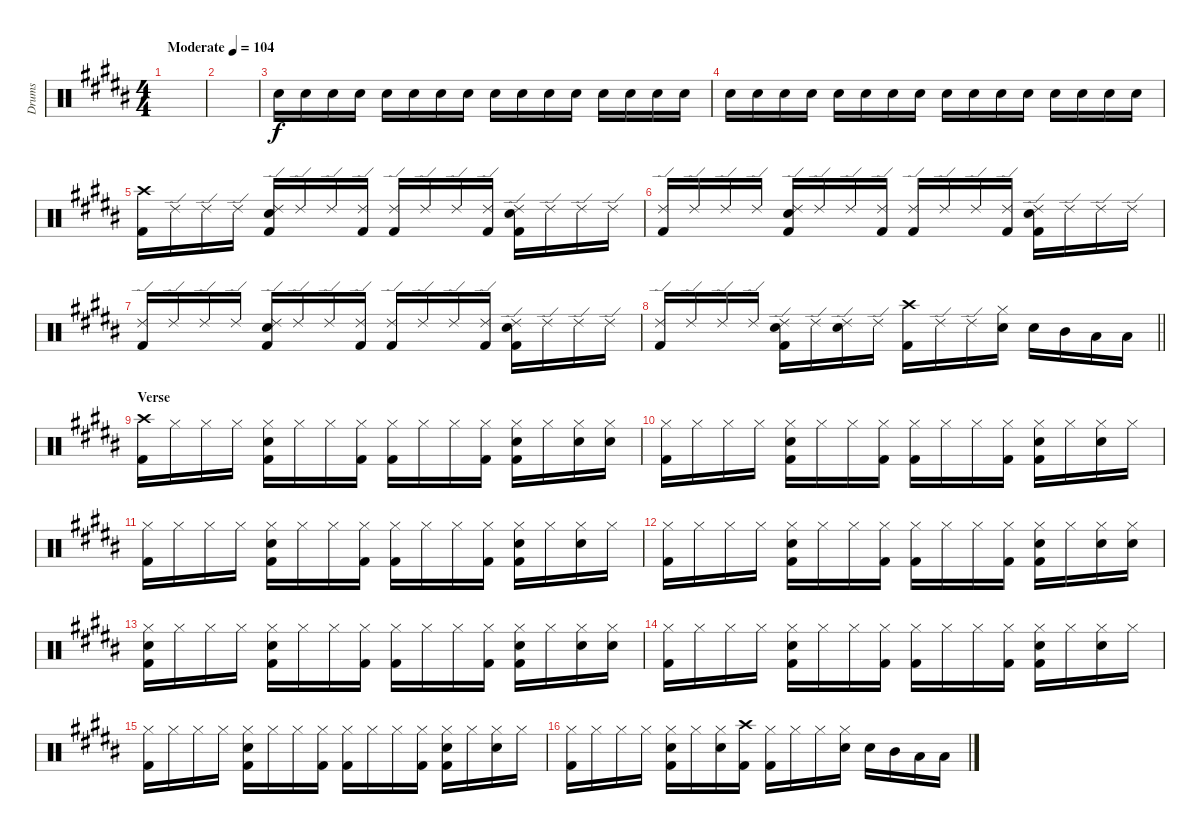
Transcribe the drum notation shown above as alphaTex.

\track ("Drums" "Drums") {instrument percussion}
\staff {score}
\articulation defaults
\ts (4 4)
\tempo (104 "Moderate")
\clef neutral
\ks b
|
|
"Electric Snare (hit)".16{volume 16} "Electric Snare (hit)".16 "Electric Snare (hit)".16 "Electric Snare (hit)".16 "Electric Snare (hit)".16 "Electric Snare (hit)".16 "Electric Snare (hit)".16 "Electric Snare (hit)".16 "Electric Snare (hit)".16 "Electric Snare (hit)".16 "Electric Snare (hit)".16 "Electric Snare (hit)".16 "Electric Snare (hit)".16 "Electric Snare (hit)".16 "Electric Snare (hit)".16 "Electric Snare (hit)".16 |
"Electric Snare (hit)".16 "Electric Snare (hit)".16 "Electric Snare (hit)".16 "Electric Snare (hit)".16 "Electric Snare (hit)".16 "Electric Snare (hit)".16 "Electric Snare (hit)".16 "Electric Snare (hit)".16 "Electric Snare (hit)".16 "Electric Snare (hit)".16 "Electric Snare (hit)".16 "Electric Snare (hit)".16 "Electric Snare (hit)".16 "Electric Snare (hit)".16 "Electric Snare (hit)".16 "Electric Snare (hit)".16 |
("Kick (hit) 2" "Crash high (hit)").16 "Ride (edge) 2".16 "Ride (edge) 2".16 "Ride (edge) 2".16 ("Electric Snare (hit)" "Kick (hit) 2" "Ride (edge) 2").16 "Ride (edge) 2".16 "Ride (edge) 2".16 ("Kick (hit) 2" "Ride (edge) 2").16 ("Kick (hit) 2" "Ride (edge) 2").16 "Ride (edge) 2".16 "Ride (edge) 2".16 ("Kick (hit) 2" "Ride (edge) 2").16 ("Electric Snare (hit)" "Kick (hit) 2" "Ride (edge) 2").16 "Ride (edge) 2".16 "Ride (edge) 2".16 "Ride (edge) 2".16 |
("Kick (hit) 2" "Ride (edge) 2").16 "Ride (edge) 2".16 "Ride (edge) 2".16 "Ride (edge) 2".16 ("Electric Snare (hit)" "Kick (hit) 2" "Ride (edge) 2").16 "Ride (edge) 2".16 "Ride (edge) 2".16 ("Kick (hit) 2" "Ride (edge) 2").16 ("Kick (hit) 2" "Ride (edge) 2").16 "Ride (edge) 2".16 "Ride (edge) 2".16 ("Kick (hit) 2" "Ride (edge) 2").16 ("Electric Snare (hit)" "Kick (hit) 2" "Ride (edge) 2").16 "Ride (edge) 2".16 "Ride (edge) 2".16 "Ride (edge) 2".16 |
("Kick (hit) 2" "Ride (edge) 2").16 "Ride (edge) 2".16 "Ride (edge) 2".16 "Ride (edge) 2".16 ("Electric Snare (hit)" "Kick (hit) 2" "Ride (edge) 2").16 "Ride (edge) 2".16 "Ride (edge) 2".16 ("Kick (hit) 2" "Ride (edge) 2").16 ("Kick (hit) 2" "Ride (edge) 2").16 "Ride (edge) 2".16 "Ride (edge) 2".16 ("Kick (hit) 2" "Ride (edge) 2").16 ("Electric Snare (hit)" "Kick (hit) 2" "Ride (edge) 2").16 "Ride (edge) 2".16 "Ride (edge) 2".16 "Ride (edge) 2".16 |
\barLineRight lightlight
("Kick (hit) 2" "Ride (edge) 2").16 "Ride (edge) 2".16 "Ride (edge) 2".16 "Ride (edge) 2".16 ("Electric Snare (hit)" "Kick (hit) 2" "Ride (edge) 2").16 "Ride (edge) 2".16 ("Electric Snare (hit)" "Ride (edge) 2").16 "Ride (edge) 2".16 ("Kick (hit) 2" "Crash high (hit)").16 "Ride (edge) 2".16 "Ride (edge) 2".16 ("Electric Snare (hit)" "Hi-Hat (closed)").16 "Electric Snare (hit)".16 "Mid Tom (hit)".16 "Low Tom (hit)".16 "Low Floor Tom (hit)".16 |
\section ("" "Verse")
("Kick (hit) 2" "Crash high (hit)").16 "Hi-Hat (closed)".16 "Hi-Hat (closed)".16 "Hi-Hat (closed)".16 ("Electric Snare (hit)" "Kick (hit) 2" "Hi-Hat (closed)").16 "Hi-Hat (closed)".16 "Hi-Hat (closed)".16 ("Kick (hit) 2" "Hi-Hat (closed)").16 ("Kick (hit) 2" "Hi-Hat (closed)").16 "Hi-Hat (closed)".16 "Hi-Hat (closed)".16 ("Kick (hit) 2" "Hi-Hat (closed)").16 ("Electric Snare (hit)" "Kick (hit) 2" "Hi-Hat (closed)").16 "Hi-Hat (closed)".16 ("Electric Snare (hit)" "Hi-Hat (closed)").16 ("Electric Snare (hit)" "Hi-Hat (closed)").16 |
("Kick (hit) 2" "Hi-Hat (closed)").16 "Hi-Hat (closed)".16 "Hi-Hat (closed)".16 "Hi-Hat (closed)".16 ("Electric Snare (hit)" "Kick (hit) 2" "Hi-Hat (closed)").16 "Hi-Hat (closed)".16 "Hi-Hat (closed)".16 ("Kick (hit) 2" "Hi-Hat (closed)").16 ("Kick (hit) 2" "Hi-Hat (closed)").16 "Hi-Hat (closed)".16 "Hi-Hat (closed)".16 ("Kick (hit) 2" "Hi-Hat (closed)").16 ("Electric Snare (hit)" "Kick (hit) 2" "Hi-Hat (closed)").16 "Hi-Hat (closed)".16 ("Electric Snare (hit)" "Hi-Hat (closed)").16 "Hi-Hat (closed)".16 |
("Kick (hit) 2" "Hi-Hat (closed)").16 "Hi-Hat (closed)".16 "Hi-Hat (closed)".16 "Hi-Hat (closed)".16 ("Electric Snare (hit)" "Kick (hit) 2" "Hi-Hat (closed)").16 "Hi-Hat (closed)".16 "Hi-Hat (closed)".16 ("Kick (hit) 2" "Hi-Hat (closed)").16 ("Kick (hit) 2" "Hi-Hat (closed)").16 "Hi-Hat (closed)".16 "Hi-Hat (closed)".16 ("Kick (hit) 2" "Hi-Hat (closed)").16 ("Electric Snare (hit)" "Kick (hit) 2" "Hi-Hat (closed)").16 "Hi-Hat (closed)".16 ("Electric Snare (hit)" "Hi-Hat (closed)").16 "Hi-Hat (closed)".16 |
("Kick (hit) 2" "Hi-Hat (closed)").16 "Hi-Hat (closed)".16 "Hi-Hat (closed)".16 "Hi-Hat (closed)".16 ("Electric Snare (hit)" "Kick (hit) 2" "Hi-Hat (closed)").16 "Hi-Hat (closed)".16 "Hi-Hat (closed)".16 ("Kick (hit) 2" "Hi-Hat (closed)").16 ("Kick (hit) 2" "Hi-Hat (closed)").16 "Hi-Hat (closed)".16 "Hi-Hat (closed)".16 ("Kick (hit) 2" "Hi-Hat (closed)").16 ("Electric Snare (hit)" "Kick (hit) 2" "Hi-Hat (closed)").16 "Hi-Hat (closed)".16 ("Electric Snare (hit)" "Hi-Hat (closed)").16 ("Electric Snare (hit)" "Hi-Hat (closed)").16 |
("Electric Snare (hit)" "Kick (hit) 2" "Hi-Hat (closed)").16 "Hi-Hat (closed)".16 "Hi-Hat (closed)".16 "Hi-Hat (closed)".16 ("Electric Snare (hit)" "Kick (hit) 2" "Hi-Hat (closed)").16 "Hi-Hat (closed)".16 "Hi-Hat (closed)".16 ("Kick (hit) 2" "Hi-Hat (closed)").16 ("Kick (hit) 2" "Hi-Hat (closed)").16 "Hi-Hat (closed)".16 "Hi-Hat (closed)".16 ("Kick (hit) 2" "Hi-Hat (closed)").16 ("Electric Snare (hit)" "Kick (hit) 2" "Hi-Hat (closed)").16 "Hi-Hat (closed)".16 ("Electric Snare (hit)" "Hi-Hat (closed)").16 ("Electric Snare (hit)" "Hi-Hat (closed)").16 |
("Kick (hit) 2" "Hi-Hat (closed)").16 "Hi-Hat (closed)".16 "Hi-Hat (closed)".16 "Hi-Hat (closed)".16 ("Electric Snare (hit)" "Kick (hit) 2" "Hi-Hat (closed)").16 "Hi-Hat (closed)".16 "Hi-Hat (closed)".16 ("Kick (hit) 2" "Hi-Hat (closed)").16 ("Kick (hit) 2" "Hi-Hat (closed)").16 "Hi-Hat (closed)".16 "Hi-Hat (closed)".16 ("Kick (hit) 2" "Hi-Hat (closed)").16 ("Electric Snare (hit)" "Kick (hit) 2" "Hi-Hat (closed)").16 "Hi-Hat (closed)".16 ("Electric Snare (hit)" "Hi-Hat (closed)").16 "Hi-Hat (closed)".16 |
("Kick (hit) 2" "Hi-Hat (closed)").16 "Hi-Hat (closed)".16 "Hi-Hat (closed)".16 "Hi-Hat (closed)".16 ("Electric Snare (hit)" "Kick (hit) 2" "Hi-Hat (closed)").16 "Hi-Hat (closed)".16 "Hi-Hat (closed)".16 ("Kick (hit) 2" "Hi-Hat (closed)").16 ("Kick (hit) 2" "Hi-Hat (closed)").16 "Hi-Hat (closed)".16 "Hi-Hat (closed)".16 ("Kick (hit) 2" "Hi-Hat (closed)").16 ("Electric Snare (hit)" "Kick (hit) 2" "Hi-Hat (closed)").16 "Hi-Hat (closed)".16 ("Electric Snare (hit)" "Hi-Hat (closed)").16 "Hi-Hat (closed)".16 |
("Kick (hit) 2" "Hi-Hat (closed)").16 "Hi-Hat (closed)".16 "Hi-Hat (closed)".16 "Hi-Hat (closed)".16 ("Electric Snare (hit)" "Kick (hit) 2" "Hi-Hat (closed)").16 "Hi-Hat (closed)".16 ("Electric Snare (hit)" "Hi-Hat (closed)").16 ("Kick (hit) 2" "Crash high (hit)").16 ("Kick (hit) 2" "Hi-Hat (closed)").16 "Hi-Hat (closed)".16 "Hi-Hat (closed)".16 ("Electric Snare (hit)" "Hi-Hat (closed)").16 "Electric Snare (hit)".16 "Mid Tom (hit)".16 "Low Tom (hit)".16 "Low Floor Tom (hit)".16
